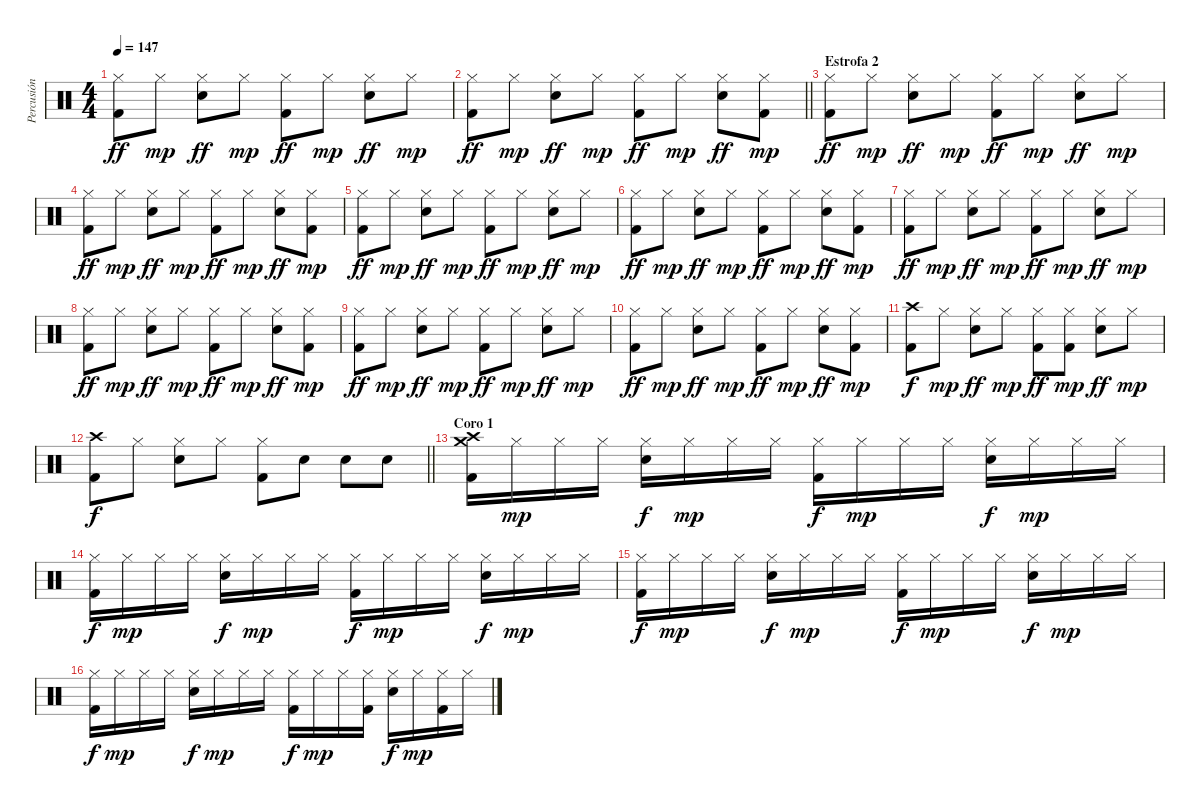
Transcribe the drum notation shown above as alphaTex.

\track ("Percusión" "Percusión") {instrument percussion}
\staff {score}
\articulation defaults
\ts (4 4)
\tempo 147
\clef neutral
\ks c
("Hi-Hat (closed)" "Kick (hit) 2").8{dy ff} "Hi-Hat (closed)".8{dy mp} ("Hi-Hat (closed)" "Snare (hit) 2").8{dy ff} "Hi-Hat (closed)".8{dy mp} ("Hi-Hat (closed)" "Kick (hit) 2").8{dy ff} "Hi-Hat (closed)".8{dy mp} ("Hi-Hat (closed)" "Snare (hit) 2").8{dy ff} "Hi-Hat (closed)".8{dy mp} |
\barLineRight lightlight
("Hi-Hat (closed)" "Kick (hit) 2").8{dy ff} "Hi-Hat (closed)".8{dy mp} ("Hi-Hat (closed)" "Snare (hit) 2").8{dy ff} "Hi-Hat (closed)".8{dy mp} ("Hi-Hat (closed)" "Kick (hit) 2").8{dy ff} "Hi-Hat (closed)".8{dy mp} ("Hi-Hat (closed)" "Snare (hit) 2").8{dy ff} ("Hi-Hat (closed)" "Kick (hit) 2").8{dy mp} |
\section ("" "Estrofa 2")
("Hi-Hat (closed)" "Kick (hit) 2").8{dy ff} "Hi-Hat (closed)".8{dy mp} ("Hi-Hat (closed)" "Snare (hit) 2").8{dy ff} "Hi-Hat (closed)".8{dy mp} ("Hi-Hat (closed)" "Kick (hit) 2").8{dy ff} "Hi-Hat (closed)".8{dy mp} ("Hi-Hat (closed)" "Snare (hit) 2").8{dy ff} "Hi-Hat (closed)".8{dy mp} |
("Hi-Hat (closed)" "Kick (hit) 2").8{dy ff} "Hi-Hat (closed)".8{dy mp} ("Hi-Hat (closed)" "Snare (hit) 2").8{dy ff} "Hi-Hat (closed)".8{dy mp} ("Hi-Hat (closed)" "Kick (hit) 2").8{dy ff} "Hi-Hat (closed)".8{dy mp} ("Hi-Hat (closed)" "Snare (hit) 2").8{dy ff} ("Hi-Hat (closed)" "Kick (hit) 2").8{dy mp} |
("Hi-Hat (closed)" "Kick (hit) 2").8{dy ff} "Hi-Hat (closed)".8{dy mp} ("Hi-Hat (closed)" "Snare (hit) 2").8{dy ff} "Hi-Hat (closed)".8{dy mp} ("Hi-Hat (closed)" "Kick (hit) 2").8{dy ff} "Hi-Hat (closed)".8{dy mp} ("Hi-Hat (closed)" "Snare (hit) 2").8{dy ff} "Hi-Hat (closed)".8{dy mp} |
("Hi-Hat (closed)" "Kick (hit) 2").8{dy ff} "Hi-Hat (closed)".8{dy mp} ("Hi-Hat (closed)" "Snare (hit) 2").8{dy ff} "Hi-Hat (closed)".8{dy mp} ("Hi-Hat (closed)" "Kick (hit) 2").8{dy ff} "Hi-Hat (closed)".8{dy mp} ("Hi-Hat (closed)" "Snare (hit) 2").8{dy ff} ("Hi-Hat (closed)" "Kick (hit) 2").8{dy mp} |
("Hi-Hat (closed)" "Kick (hit) 2").8{dy ff} "Hi-Hat (closed)".8{dy mp} ("Hi-Hat (closed)" "Snare (hit) 2").8{dy ff} "Hi-Hat (closed)".8{dy mp} ("Hi-Hat (closed)" "Kick (hit) 2").8{dy ff} "Hi-Hat (closed)".8{dy mp} ("Hi-Hat (closed)" "Snare (hit) 2").8{dy ff} "Hi-Hat (closed)".8{dy mp} |
("Hi-Hat (closed)" "Kick (hit) 2").8{dy ff} "Hi-Hat (closed)".8{dy mp} ("Hi-Hat (closed)" "Snare (hit) 2").8{dy ff} "Hi-Hat (closed)".8{dy mp} ("Hi-Hat (closed)" "Kick (hit) 2").8{dy ff} "Hi-Hat (closed)".8{dy mp} ("Hi-Hat (closed)" "Snare (hit) 2").8{dy ff} ("Hi-Hat (closed)" "Kick (hit) 2").8{dy mp} |
("Hi-Hat (closed)" "Kick (hit) 2").8{dy ff} "Hi-Hat (closed)".8{dy mp} ("Hi-Hat (closed)" "Snare (hit) 2").8{dy ff} "Hi-Hat (closed)".8{dy mp} ("Hi-Hat (closed)" "Kick (hit) 2").8{dy ff} "Hi-Hat (closed)".8{dy mp} ("Hi-Hat (closed)" "Snare (hit) 2").8{dy ff} "Hi-Hat (closed)".8{dy mp} |
("Hi-Hat (closed)" "Kick (hit) 2").8{dy ff} "Hi-Hat (closed)".8{dy mp} ("Hi-Hat (closed)" "Snare (hit) 2").8{dy ff} "Hi-Hat (closed)".8{dy mp} ("Hi-Hat (closed)" "Kick (hit) 2").8{dy ff} "Hi-Hat (closed)".8{dy mp} ("Hi-Hat (closed)" "Snare (hit) 2").8{dy ff} ("Hi-Hat (closed)" "Kick (hit) 2").8{dy mp} |
("Crash high (hit)" "Kick (hit) 2").8{dy f} "Hi-Hat (closed)".8{dy mp} ("Hi-Hat (closed)" "Snare (hit) 2").8{dy ff} "Hi-Hat (closed)".8{dy mp} ("Hi-Hat (closed)" "Kick (hit) 2").8{dy ff} ("Hi-Hat (closed)" "Kick (hit) 2").8{dy mp} ("Hi-Hat (closed)" "Snare (hit) 2").8{dy ff} "Hi-Hat (closed)".8{dy mp} |
\barLineRight lightlight
("Crash high (hit)" "Kick (hit) 2").8{dy f} "Hi-Hat (closed)".8 ("Hi-Hat (closed)" "Snare (hit) 2").8 "Hi-Hat (closed)".8 ("Hi-Hat (closed)" "Kick (hit) 2").8 "Snare (hit) 2".8 "Snare (hit) 2".8 "Snare (hit) 2".8 |
\section ("" "Coro 1")
("Crash high (hit)" "Crash medium (hit)" "Kick (hit) 2").16 "Hi-Hat (closed)".16{dy mp} "Hi-Hat (closed)".16 "Hi-Hat (closed)".16 ("Hi-Hat (closed)" "Snare (hit) 2").16{dy f} "Hi-Hat (closed)".16{dy mp} "Hi-Hat (closed)".16 "Hi-Hat (closed)".16 ("Hi-Hat (closed)" "Kick (hit) 2").16{dy f} "Hi-Hat (closed)".16{dy mp} "Hi-Hat (closed)".16 "Hi-Hat (closed)".16 ("Hi-Hat (closed)" "Snare (hit) 2").16{dy f} "Hi-Hat (closed)".16{dy mp} "Hi-Hat (closed)".16 "Hi-Hat (closed)".16 |
("Hi-Hat (closed)" "Kick (hit) 2").16{dy f} "Hi-Hat (closed)".16{dy mp} "Hi-Hat (closed)".16 "Hi-Hat (closed)".16 ("Hi-Hat (closed)" "Snare (hit) 2").16{dy f} "Hi-Hat (closed)".16{dy mp} "Hi-Hat (closed)".16 "Hi-Hat (closed)".16 ("Hi-Hat (closed)" "Kick (hit) 2").16{dy f} "Hi-Hat (closed)".16{dy mp} "Hi-Hat (closed)".16 "Hi-Hat (closed)".16 ("Hi-Hat (closed)" "Snare (hit) 2").16{dy f} "Hi-Hat (closed)".16{dy mp} "Hi-Hat (closed)".16 "Hi-Hat (closed)".16 |
("Hi-Hat (closed)" "Kick (hit) 2").16{dy f} "Hi-Hat (closed)".16{dy mp} "Hi-Hat (closed)".16 "Hi-Hat (closed)".16 ("Hi-Hat (closed)" "Snare (hit) 2").16{dy f} "Hi-Hat (closed)".16{dy mp} "Hi-Hat (closed)".16 "Hi-Hat (closed)".16 ("Hi-Hat (closed)" "Kick (hit) 2").16{dy f} "Hi-Hat (closed)".16{dy mp} "Hi-Hat (closed)".16 "Hi-Hat (closed)".16 ("Hi-Hat (closed)" "Snare (hit) 2").16{dy f} "Hi-Hat (closed)".16{dy mp} "Hi-Hat (closed)".16 "Hi-Hat (closed)".16 |
("Hi-Hat (closed)" "Kick (hit) 2").16{dy f} "Hi-Hat (closed)".16{dy mp} "Hi-Hat (closed)".16 "Hi-Hat (closed)".16 ("Hi-Hat (closed)" "Snare (hit) 2").16{dy f} "Hi-Hat (closed)".16{dy mp} "Hi-Hat (closed)".16 "Hi-Hat (closed)".16 ("Hi-Hat (closed)" "Kick (hit) 2").16{dy f} "Hi-Hat (closed)".16{dy mp} "Hi-Hat (closed)".16 ("Hi-Hat (closed)" "Kick (hit) 2").16 ("Hi-Hat (closed)" "Snare (hit) 2").16{dy f} "Hi-Hat (closed)".16{dy mp} ("Hi-Hat (closed)" "Kick (hit) 2").16 "Hi-Hat (closed)".16
